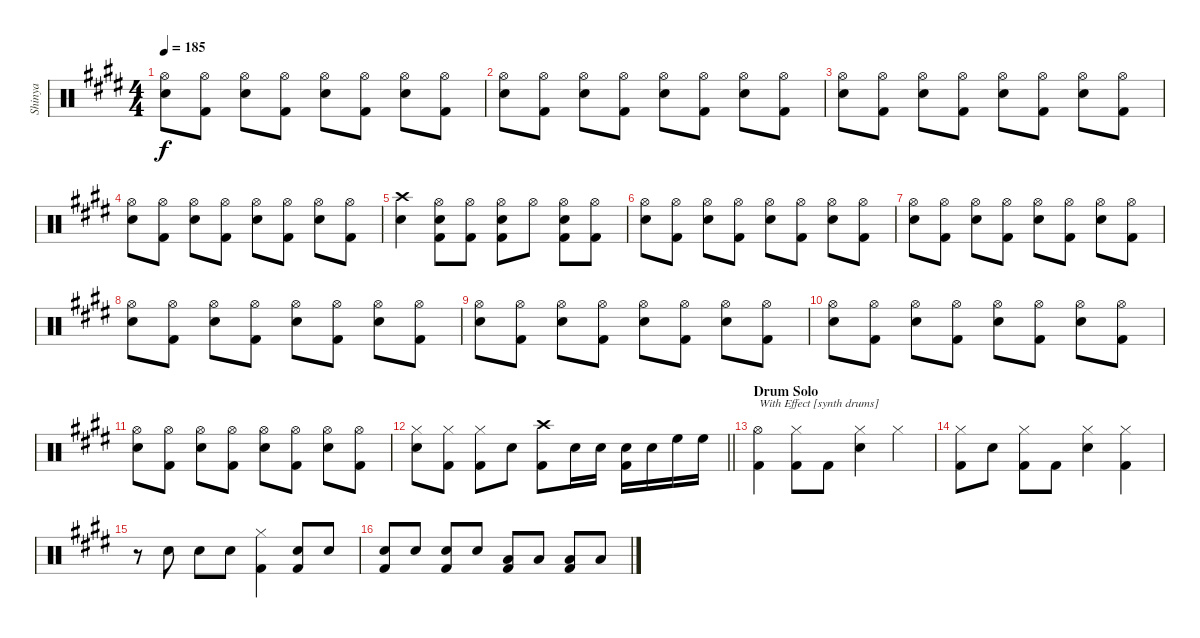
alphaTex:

\track ("Shinya" "Shinya") {instrument percussion}
\staff {score}
\articulation defaults
\ts (4 4)
\tempo 185
\clef neutral
\ks e
("Hi-Hat (open)" "Snare (hit) 2").8{dy f} ("Hi-Hat (open)" "Kick (hit) 2").8 ("Hi-Hat (open)" "Snare (hit) 2").8 ("Hi-Hat (open)" "Kick (hit) 2").8 ("Hi-Hat (open)" "Snare (hit) 2").8 ("Hi-Hat (open)" "Kick (hit) 2").8 ("Hi-Hat (open)" "Snare (hit) 2").8 ("Hi-Hat (open)" "Kick (hit) 2").8 |
("Hi-Hat (open)" "Snare (hit) 2").8 ("Hi-Hat (open)" "Kick (hit) 2").8 ("Hi-Hat (open)" "Snare (hit) 2").8 ("Hi-Hat (open)" "Kick (hit) 2").8 ("Hi-Hat (open)" "Snare (hit) 2").8 ("Hi-Hat (open)" "Kick (hit) 2").8 ("Hi-Hat (open)" "Snare (hit) 2").8 ("Hi-Hat (open)" "Kick (hit) 2").8 |
("Hi-Hat (open)" "Snare (hit) 2").8 ("Hi-Hat (open)" "Kick (hit) 2").8 ("Hi-Hat (open)" "Snare (hit) 2").8 ("Hi-Hat (open)" "Kick (hit) 2").8 ("Hi-Hat (open)" "Snare (hit) 2").8 ("Hi-Hat (open)" "Kick (hit) 2").8 ("Hi-Hat (open)" "Snare (hit) 2").8 ("Hi-Hat (open)" "Kick (hit) 2").8 |
("Hi-Hat (open)" "Snare (hit) 2").8 ("Hi-Hat (open)" "Kick (hit) 2").8 ("Hi-Hat (open)" "Snare (hit) 2").8 ("Hi-Hat (open)" "Kick (hit) 2").8 ("Hi-Hat (open)" "Snare (hit) 2").8 ("Hi-Hat (open)" "Kick (hit) 2").8 ("Hi-Hat (open)" "Snare (hit) 2").8 ("Hi-Hat (open)" "Kick (hit) 2").8 |
("Crash high (hit)" "Snare (hit) 2").4 ("Hi-Hat (open)" "Snare (hit) 2" "Kick (hit) 2").8 ("Hi-Hat (open)" "Kick (hit) 2").8 ("Hi-Hat (open)" "Snare (hit) 2" "Kick (hit) 2").8 "Hi-Hat (open)".8 ("Hi-Hat (open)" "Snare (hit) 2" "Kick (hit) 2").8 ("Hi-Hat (open)" "Kick (hit) 2").8 |
("Hi-Hat (open)" "Snare (hit) 2").8 ("Hi-Hat (open)" "Kick (hit) 2").8 ("Hi-Hat (open)" "Snare (hit) 2").8 ("Hi-Hat (open)" "Kick (hit) 2").8 ("Hi-Hat (open)" "Snare (hit) 2").8 ("Hi-Hat (open)" "Kick (hit) 2").8 ("Hi-Hat (open)" "Snare (hit) 2").8 ("Hi-Hat (open)" "Kick (hit) 2").8 |
("Hi-Hat (open)" "Snare (hit) 2").8 ("Hi-Hat (open)" "Kick (hit) 2").8 ("Hi-Hat (open)" "Snare (hit) 2").8 ("Hi-Hat (open)" "Kick (hit) 2").8 ("Hi-Hat (open)" "Snare (hit) 2").8 ("Hi-Hat (open)" "Kick (hit) 2").8 ("Hi-Hat (open)" "Snare (hit) 2").8 ("Hi-Hat (open)" "Kick (hit) 2").8 |
("Hi-Hat (open)" "Snare (hit) 2").8 ("Hi-Hat (open)" "Kick (hit) 2").8 ("Hi-Hat (open)" "Snare (hit) 2").8 ("Hi-Hat (open)" "Kick (hit) 2").8 ("Hi-Hat (open)" "Snare (hit) 2").8 ("Hi-Hat (open)" "Kick (hit) 2").8 ("Hi-Hat (open)" "Snare (hit) 2").8 ("Hi-Hat (open)" "Kick (hit) 2").8 |
("Hi-Hat (open)" "Snare (hit) 2").8 ("Hi-Hat (open)" "Kick (hit) 2").8 ("Hi-Hat (open)" "Snare (hit) 2").8 ("Hi-Hat (open)" "Kick (hit) 2").8 ("Hi-Hat (open)" "Snare (hit) 2").8 ("Hi-Hat (open)" "Kick (hit) 2").8 ("Hi-Hat (open)" "Snare (hit) 2").8 ("Hi-Hat (open)" "Kick (hit) 2").8 |
("Hi-Hat (open)" "Snare (hit) 2").8 ("Hi-Hat (open)" "Kick (hit) 2").8 ("Hi-Hat (open)" "Snare (hit) 2").8 ("Hi-Hat (open)" "Kick (hit) 2").8 ("Hi-Hat (open)" "Snare (hit) 2").8 ("Hi-Hat (open)" "Kick (hit) 2").8 ("Hi-Hat (open)" "Snare (hit) 2").8 ("Hi-Hat (open)" "Kick (hit) 2").8 |
("Hi-Hat (open)" "Snare (hit) 2").8 ("Hi-Hat (open)" "Kick (hit) 2").8 ("Hi-Hat (open)" "Snare (hit) 2").8 ("Hi-Hat (open)" "Kick (hit) 2").8 ("Hi-Hat (open)" "Snare (hit) 2").8 ("Hi-Hat (open)" "Kick (hit) 2").8 ("Hi-Hat (open)" "Snare (hit) 2").8 ("Hi-Hat (open)" "Kick (hit) 2").8 |
\barLineRight lightlight
("Hi-Hat (closed)" "Snare (hit) 2").8 ("Hi-Hat (closed)" "Kick (hit) 2").8 ("Hi-Hat (closed)" "Kick (hit) 2").8 "Snare (hit) 2".8 ("Crash high (hit)" "Kick (hit) 2").8 "Snare (hit) 2".16 "Snare (hit) 2".16 ("Snare (hit) 2" "Kick (hit) 2").16 "Snare (hit) 2".16 "High Floor Tom (hit)".16 "High Floor Tom (hit)".16 |
\section ("" "Drum Solo")
("Hi-Hat (open)" "Kick (hit) 2").4{txt "With Effect [synth drums]" volume 16} ("Hi-Hat (closed)" "Kick (hit) 2").8 "Kick (hit) 2".8 ("Hi-Hat (closed)" "Snare (hit) 2").4 "Hi-Hat (closed)".4 |
("Hi-Hat (closed)" "Kick (hit) 2").8 "Snare (hit) 2".8 ("Hi-Hat (closed)" "Kick (hit) 2").8 "Kick (hit) 2".8 ("Hi-Hat (closed)" "Snare (hit) 2").4 ("Hi-Hat (closed)" "Kick (hit) 2").4 |
r.8 "Snare (hit) 2".8 "Snare (hit) 2".8 "Snare (hit) 2".8 ("Hi-Hat (closed)" "Kick (hit) 2").4 ("Snare (hit) 2" "Kick (hit) 2").8 "Snare (hit) 2".8 |
("Snare (hit) 2" "Kick (hit) 2").8 "Snare (hit) 2".8 ("Snare (hit) 2" "Kick (hit) 2").8 "Snare (hit) 2".8 ("Low Tom (hit)" "Kick (hit) 2").8 "Low Tom (hit)".8 ("Low Floor Tom (hit)" "Kick (hit) 2").8 "Low Floor Tom (hit)".8
